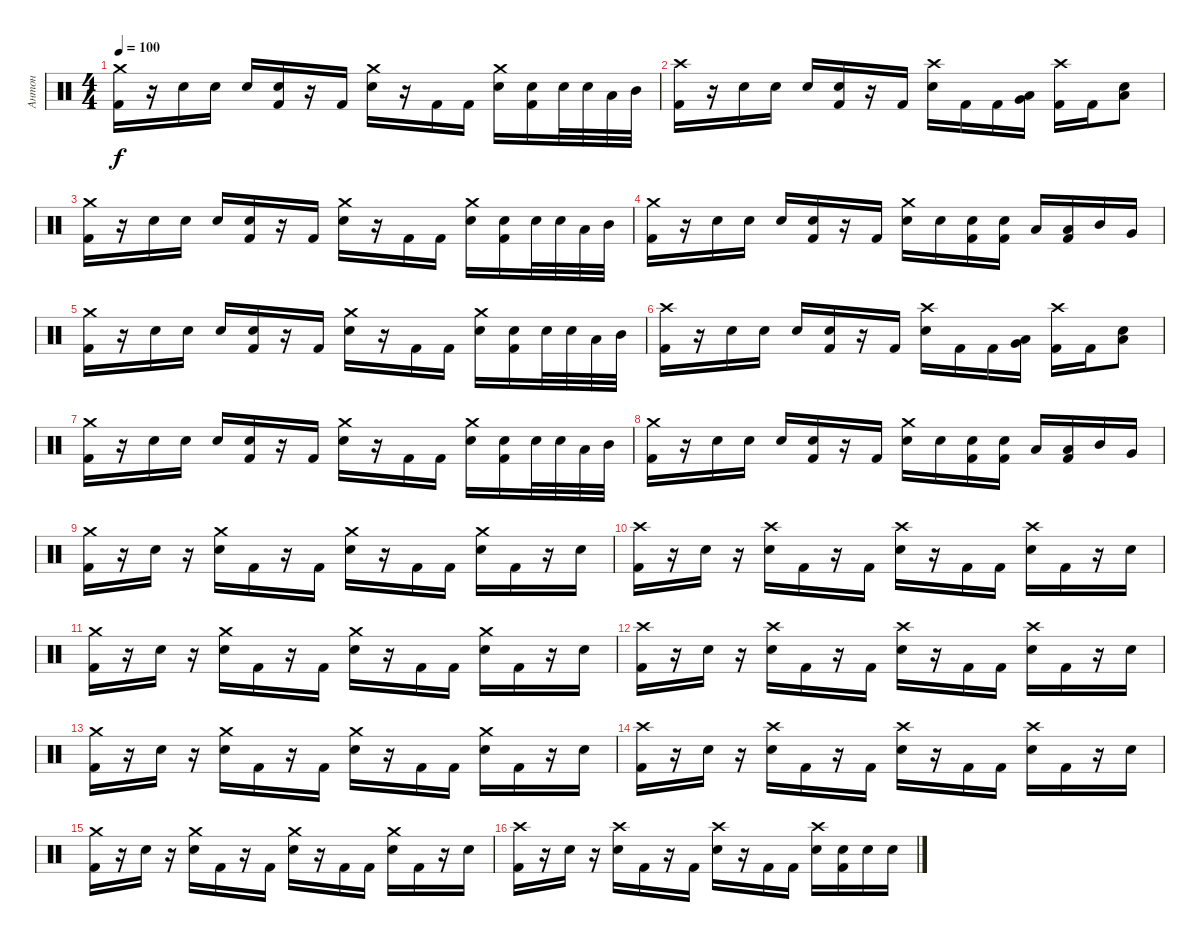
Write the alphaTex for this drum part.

\track ("Антон" "Антон") {instrument percussion}
\staff {score}
\articulation defaults
\ts (4 4)
\tempo 100
\clef neutral
\ks c
("Crash medium (hit)" "Kick (hit) 2").16{dy f} r.16 "Electric Snare (hit)".16 "Electric Snare (hit)".16 "Electric Snare (hit)".16 ("Electric Snare (hit)" "Kick (hit) 2").16 r.16 "Kick (hit) 2".16 ("Crash medium (hit)" "Electric Snare (hit)").16 r.16 "Kick (hit) 2".16 "Kick (hit) 2".16 ("Crash medium (hit)" "Electric Snare (hit)").16 ("Electric Snare (hit)" "Kick (hit) 2").16 "Electric Snare (hit)".32 "Electric Snare (hit)".32 "Low Tom (hit)".32 "Mid Tom (hit)".32 |
("Crash high (hit)" "Kick (hit) 2").16 r.16 "Electric Snare (hit)".16 "Electric Snare (hit)".16 "Electric Snare (hit)".16 ("Electric Snare (hit)" "Kick (hit) 2").16 r.16 "Kick (hit) 2".16 ("Crash high (hit)" "Electric Snare (hit)").16 "Kick (hit) 2".16 "Kick (hit) 2".16 ("Very Low Tom (hit)" "Low Tom (hit)").16 ("Crash high (hit)" "Kick (hit) 2").16 "Kick (hit) 2".16 ("Electric Snare (hit)" "Low Tom (hit)").8 |
("Crash medium (hit)" "Kick (hit) 2").16 r.16 "Electric Snare (hit)".16 "Electric Snare (hit)".16 "Electric Snare (hit)".16 ("Electric Snare (hit)" "Kick (hit) 2").16 r.16 "Kick (hit) 2".16 ("Crash medium (hit)" "Electric Snare (hit)").16 r.16 "Kick (hit) 2".16 "Kick (hit) 2".16 ("Crash medium (hit)" "Electric Snare (hit)").16 ("Electric Snare (hit)" "Kick (hit) 2").16 "Electric Snare (hit)".32 "Electric Snare (hit)".32 "Low Tom (hit)".32 "Mid Tom (hit)".32 |
("Crash medium (hit)" "Kick (hit) 2").16 r.16 "Electric Snare (hit)".16 "Electric Snare (hit)".16 "Electric Snare (hit)".16 ("Electric Snare (hit)" "Kick (hit) 2").16 r.16 "Kick (hit) 2".16 ("Crash medium (hit)" "Electric Snare (hit)").16 "Electric Snare (hit)".16 ("Electric Snare (hit)" "Kick (hit) 2").16 ("Electric Snare (hit)" "Kick (hit) 2").16 "Low Tom (hit)".16 ("Low Tom (hit)" "Kick (hit) 2").16 "Mid Tom (hit)".16 "Very Low Tom (hit)".16 |
("Crash medium (hit)" "Kick (hit) 2").16 r.16 "Electric Snare (hit)".16 "Electric Snare (hit)".16 "Electric Snare (hit)".16 ("Electric Snare (hit)" "Kick (hit) 2").16 r.16 "Kick (hit) 2".16 ("Crash medium (hit)" "Electric Snare (hit)").16 r.16 "Kick (hit) 2".16 "Kick (hit) 2".16 ("Crash medium (hit)" "Electric Snare (hit)").16 ("Electric Snare (hit)" "Kick (hit) 2").16 "Electric Snare (hit)".32 "Electric Snare (hit)".32 "Low Tom (hit)".32 "Mid Tom (hit)".32 |
("Crash high (hit)" "Kick (hit) 2").16 r.16 "Electric Snare (hit)".16 "Electric Snare (hit)".16 "Electric Snare (hit)".16 ("Electric Snare (hit)" "Kick (hit) 2").16 r.16 "Kick (hit) 2".16 ("Crash high (hit)" "Electric Snare (hit)").16 "Kick (hit) 2".16 "Kick (hit) 2".16 ("Very Low Tom (hit)" "Low Tom (hit)").16 ("Crash high (hit)" "Kick (hit) 2").16 "Kick (hit) 2".16 ("Electric Snare (hit)" "Low Tom (hit)").8 |
("Crash medium (hit)" "Kick (hit) 2").16 r.16 "Electric Snare (hit)".16 "Electric Snare (hit)".16 "Electric Snare (hit)".16 ("Electric Snare (hit)" "Kick (hit) 2").16 r.16 "Kick (hit) 2".16 ("Crash medium (hit)" "Electric Snare (hit)").16 r.16 "Kick (hit) 2".16 "Kick (hit) 2".16 ("Crash medium (hit)" "Electric Snare (hit)").16 ("Electric Snare (hit)" "Kick (hit) 2").16 "Electric Snare (hit)".32 "Electric Snare (hit)".32 "Low Tom (hit)".32 "Mid Tom (hit)".32 |
("Crash medium (hit)" "Kick (hit) 2").16 r.16 "Electric Snare (hit)".16 "Electric Snare (hit)".16 "Electric Snare (hit)".16 ("Electric Snare (hit)" "Kick (hit) 2").16 r.16 "Kick (hit) 2".16 ("Crash medium (hit)" "Electric Snare (hit)").16 "Electric Snare (hit)".16 ("Electric Snare (hit)" "Kick (hit) 2").16 ("Electric Snare (hit)" "Kick (hit) 2").16 "Low Tom (hit)".16 ("Low Tom (hit)" "Kick (hit) 2").16 "Mid Tom (hit)".16 "Very Low Tom (hit)".16 |
("Crash medium (hit)" "Kick (hit) 2").16 r.16 "Electric Snare (hit)".16 r.16 ("Crash medium (hit)" "Electric Snare (hit)").16 "Kick (hit) 2".16 r.16 "Kick (hit) 2".16 ("Crash medium (hit)" "Electric Snare (hit)").16 r.16 "Kick (hit) 2".16 "Kick (hit) 2".16 ("Crash medium (hit)" "Electric Snare (hit)").16 "Kick (hit) 2".16 r.16 "Electric Snare (hit)".16 |
("Crash high (hit)" "Kick (hit) 2").16 r.16 "Electric Snare (hit)".16 r.16 ("Crash high (hit)" "Electric Snare (hit)").16 "Kick (hit) 2".16 r.16 "Kick (hit) 2".16 ("Crash high (hit)" "Electric Snare (hit)").16 r.16 "Kick (hit) 2".16 "Kick (hit) 2".16 ("Crash high (hit)" "Electric Snare (hit)").16 "Kick (hit) 2".16 r.16 "Electric Snare (hit)".16 |
("Crash medium (hit)" "Kick (hit) 2").16 r.16 "Electric Snare (hit)".16 r.16 ("Crash medium (hit)" "Electric Snare (hit)").16 "Kick (hit) 2".16 r.16 "Kick (hit) 2".16 ("Crash medium (hit)" "Electric Snare (hit)").16 r.16 "Kick (hit) 2".16 "Kick (hit) 2".16 ("Crash medium (hit)" "Electric Snare (hit)").16 "Kick (hit) 2".16 r.16 "Electric Snare (hit)".16 |
("Crash high (hit)" "Kick (hit) 2").16 r.16 "Electric Snare (hit)".16 r.16 ("Crash high (hit)" "Electric Snare (hit)").16 "Kick (hit) 2".16 r.16 "Kick (hit) 2".16 ("Crash high (hit)" "Electric Snare (hit)").16 r.16 "Kick (hit) 2".16 "Kick (hit) 2".16 ("Crash high (hit)" "Electric Snare (hit)").16 "Kick (hit) 2".16 r.16 "Electric Snare (hit)".16 |
("Crash medium (hit)" "Kick (hit) 2").16 r.16 "Electric Snare (hit)".16 r.16 ("Crash medium (hit)" "Electric Snare (hit)").16 "Kick (hit) 2".16 r.16 "Kick (hit) 2".16 ("Crash medium (hit)" "Electric Snare (hit)").16 r.16 "Kick (hit) 2".16 "Kick (hit) 2".16 ("Crash medium (hit)" "Electric Snare (hit)").16 "Kick (hit) 2".16 r.16 "Electric Snare (hit)".16 |
("Crash high (hit)" "Kick (hit) 2").16 r.16 "Electric Snare (hit)".16 r.16 ("Crash high (hit)" "Electric Snare (hit)").16 "Kick (hit) 2".16 r.16 "Kick (hit) 2".16 ("Crash high (hit)" "Electric Snare (hit)").16 r.16 "Kick (hit) 2".16 "Kick (hit) 2".16 ("Crash high (hit)" "Electric Snare (hit)").16 "Kick (hit) 2".16 r.16 "Electric Snare (hit)".16 |
("Crash medium (hit)" "Kick (hit) 2").16 r.16 "Electric Snare (hit)".16 r.16 ("Crash medium (hit)" "Electric Snare (hit)").16 "Kick (hit) 2".16 r.16 "Kick (hit) 2".16 ("Crash medium (hit)" "Electric Snare (hit)").16 r.16 "Kick (hit) 2".16 "Kick (hit) 2".16 ("Crash medium (hit)" "Electric Snare (hit)").16 "Kick (hit) 2".16 r.16 "Electric Snare (hit)".16 |
("Crash high (hit)" "Kick (hit) 2").16 r.16 "Electric Snare (hit)".16 r.16 ("Crash high (hit)" "Electric Snare (hit)").16 "Kick (hit) 2".16 r.16 "Kick (hit) 2".16 ("Crash high (hit)" "Electric Snare (hit)").16 r.16 "Kick (hit) 2".16 "Kick (hit) 2".16 ("Crash high (hit)" "Electric Snare (hit)").16 ("Electric Snare (hit)" "Kick (hit) 2").16 "Electric Snare (hit)".16 "Electric Snare (hit)".16
